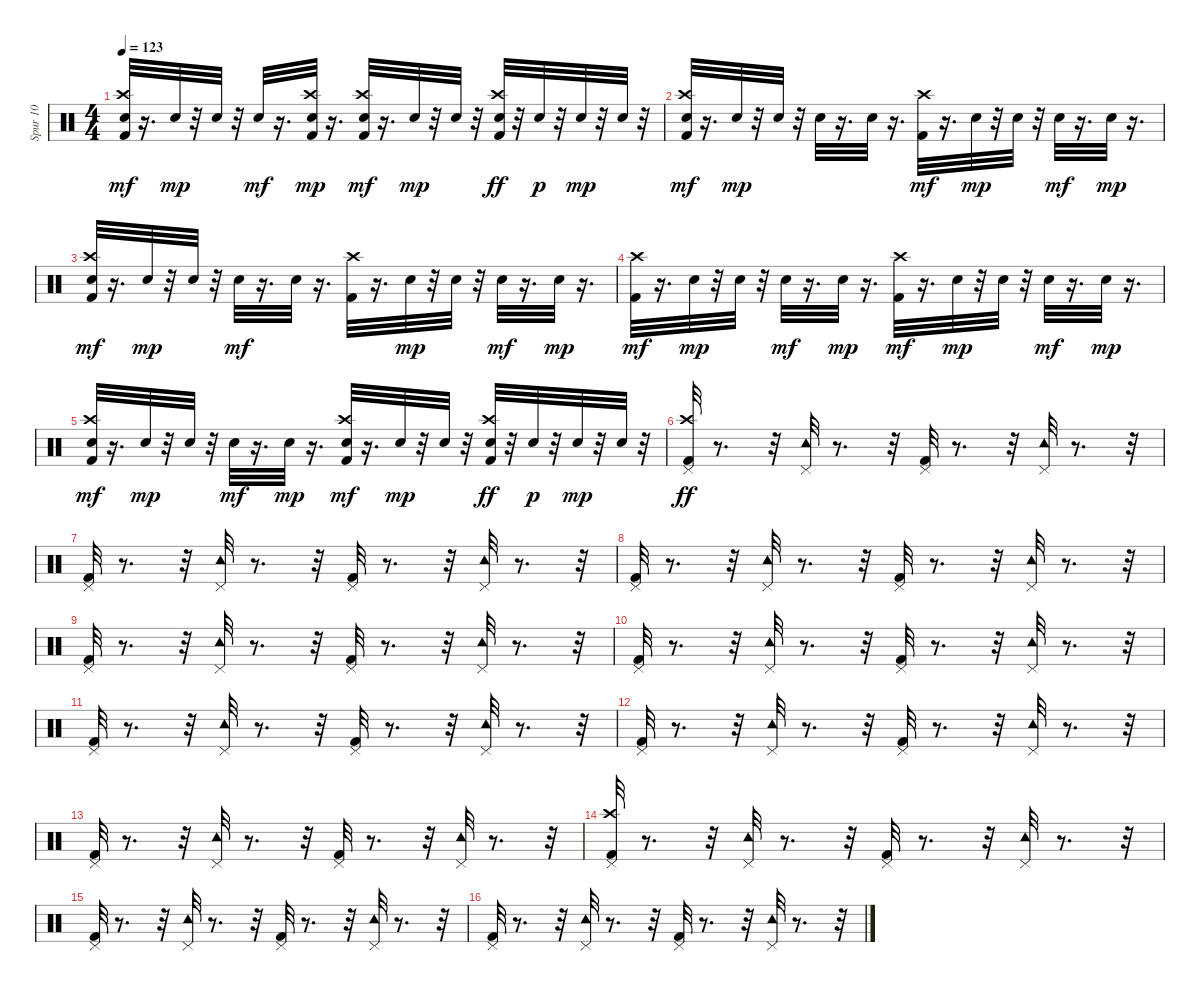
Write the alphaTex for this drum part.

\track ("Spur 10" "Spur 10") {instrument percussion}
\staff {score}
\articulation defaults
\ts (4 4)
\tempo 123
\clef neutral
\ks c
("Kick (hit) 2" "Crash high (hit)" "Snare (hit) 2").32{dy mf} r.16{d} "Snare (hit) 2".32{dy mp} r.32 "Snare (hit) 2".32 r.32 "Snare (hit) 2".32{dy mf} r.16{d} ("Snare (hit) 2" "Kick (hit) 2" "Crash high (hit)").32{dy mp} r.16{d} ("Kick (hit) 2" "Snare (hit) 2" "Crash high (hit)").32{dy mf} r.16{d} "Snare (hit) 2".32{dy mp} r.32 "Snare (hit) 2".32 r.32 ("Snare (hit) 2" "Kick (hit) 2" "Crash high (hit)").32{dy ff} r.32 "Snare (hit) 2".32{dy p} r.32 "Snare (hit) 2".32{dy mp} r.32 "Snare (hit) 2".32 r.32 |
("Kick (hit) 2" "Crash high (hit)" "Snare (hit) 2").32{dy mf} r.16{d} "Snare (hit) 2".32{dy mp} r.32 "Snare (hit) 2".32 r.32 "Snare (hit) 2".32 r.16{d} "Snare (hit) 2".32 r.16{d} ("Kick (hit) 2" "Crash high (hit)").32{dy mf} r.16{d} "Snare (hit) 2".32{dy mp} r.32 "Snare (hit) 2".32 r.32 "Snare (hit) 2".32{dy mf} r.16{d} "Snare (hit) 2".32{dy mp} r.16{d} |
("Kick (hit) 2" "Crash high (hit)" "Snare (hit) 2").32{dy mf} r.16{d} "Snare (hit) 2".32{dy mp} r.32 "Snare (hit) 2".32 r.32 "Snare (hit) 2".32{dy mf} r.16{d} "Snare (hit) 2".32 r.16{d} ("Kick (hit) 2" "Crash high (hit)").32 r.16{d} "Snare (hit) 2".32{dy mp} r.32 "Snare (hit) 2".32 r.32 "Snare (hit) 2".32{dy mf} r.16{d} "Snare (hit) 2".32{dy mp} r.16{d} |
("Kick (hit) 2" "Crash high (hit)").32{dy mf} r.16{d} "Snare (hit) 2".32{dy mp} r.32 "Snare (hit) 2".32 r.32 "Snare (hit) 2".32{dy mf} r.16{d} "Snare (hit) 2".32{dy mp} r.16{d} ("Kick (hit) 2" "Crash high (hit)").32{dy mf} r.16{d} "Snare (hit) 2".32{dy mp} r.32 "Snare (hit) 2".32 r.32 "Snare (hit) 2".32{dy mf} r.16{d} "Snare (hit) 2".32{dy mp} r.16{d} |
("Kick (hit) 2" "Crash high (hit)" "Snare (hit) 2").32{dy mf} r.16{d} "Snare (hit) 2".32{dy mp} r.32 "Snare (hit) 2".32 r.32 "Snare (hit) 2".32{dy mf} r.16{d} "Snare (hit) 2".32{dy mp} r.16{d} ("Kick (hit) 2" "Snare (hit) 2" "Crash high (hit)").32{dy mf} r.16{d} "Snare (hit) 2".32{dy mp} r.32 "Snare (hit) 2".32 r.32 ("Snare (hit) 2" "Kick (hit) 2" "Crash high (hit)").32{dy ff} r.32 "Snare (hit) 2".32{dy p} r.32 "Snare (hit) 2".32{dy mp} r.32 "Snare (hit) 2".32 r.32 |
("Kick (hit) 2" "Crash high (hit)" "Pedal Hi-Hat (hit)").32{dy ff} r.8{d} r.32 ("Tambourine (hit)" "Pedal Hi-Hat (hit)").32 r.8{d} r.32 ("Kick (hit) 2" "Pedal Hi-Hat (hit)").32 r.8{d} r.32 ("Tambourine (hit)" "Pedal Hi-Hat (hit)").32 r.8{d} r.32 |
("Kick (hit) 2" "Pedal Hi-Hat (hit)").32 r.8{d} r.32 ("Tambourine (hit)" "Pedal Hi-Hat (hit)").32 r.8{d} r.32 ("Kick (hit) 2" "Pedal Hi-Hat (hit)").32 r.8{d} r.32 ("Tambourine (hit)" "Pedal Hi-Hat (hit)").32 r.8{d} r.32 |
("Kick (hit) 2" "Pedal Hi-Hat (hit)").32 r.8{d} r.32 ("Tambourine (hit)" "Pedal Hi-Hat (hit)").32 r.8{d} r.32 ("Kick (hit) 2" "Pedal Hi-Hat (hit)").32 r.8{d} r.32 ("Tambourine (hit)" "Pedal Hi-Hat (hit)").32 r.8{d} r.32 |
("Kick (hit) 2" "Pedal Hi-Hat (hit)").32 r.8{d} r.32 ("Tambourine (hit)" "Pedal Hi-Hat (hit)").32 r.8{d} r.32 ("Kick (hit) 2" "Pedal Hi-Hat (hit)").32 r.8{d} r.32 ("Tambourine (hit)" "Pedal Hi-Hat (hit)").32 r.8{d} r.32 |
("Kick (hit) 2" "Pedal Hi-Hat (hit)").32 r.8{d} r.32 ("Tambourine (hit)" "Pedal Hi-Hat (hit)").32 r.8{d} r.32 ("Kick (hit) 2" "Pedal Hi-Hat (hit)").32 r.8{d} r.32 ("Tambourine (hit)" "Pedal Hi-Hat (hit)").32 r.8{d} r.32 |
("Kick (hit) 2" "Pedal Hi-Hat (hit)").32 r.8{d} r.32 ("Tambourine (hit)" "Pedal Hi-Hat (hit)").32 r.8{d} r.32 ("Kick (hit) 2" "Pedal Hi-Hat (hit)").32 r.8{d} r.32 ("Tambourine (hit)" "Pedal Hi-Hat (hit)").32 r.8{d} r.32 |
("Kick (hit) 2" "Pedal Hi-Hat (hit)").32 r.8{d} r.32 ("Tambourine (hit)" "Pedal Hi-Hat (hit)").32 r.8{d} r.32 ("Kick (hit) 2" "Pedal Hi-Hat (hit)").32 r.8{d} r.32 ("Tambourine (hit)" "Pedal Hi-Hat (hit)").32 r.8{d} r.32 |
("Kick (hit) 2" "Pedal Hi-Hat (hit)").32 r.8{d} r.32 ("Tambourine (hit)" "Pedal Hi-Hat (hit)").32 r.8{d} r.32 ("Kick (hit) 2" "Pedal Hi-Hat (hit)").32 r.8{d} r.32 ("Tambourine (hit)" "Pedal Hi-Hat (hit)").32 r.8{d} r.32 |
("Kick (hit) 2" "Crash high (hit)" "Pedal Hi-Hat (hit)").32 r.8{d} r.32 ("Tambourine (hit)" "Pedal Hi-Hat (hit)").32 r.8{d} r.32 ("Kick (hit) 2" "Pedal Hi-Hat (hit)").32 r.8{d} r.32 ("Tambourine (hit)" "Pedal Hi-Hat (hit)").32 r.8{d} r.32 |
("Kick (hit) 2" "Pedal Hi-Hat (hit)").32 r.8{d} r.32 ("Tambourine (hit)" "Pedal Hi-Hat (hit)").32 r.8{d} r.32 ("Kick (hit) 2" "Pedal Hi-Hat (hit)").32 r.8{d} r.32 ("Tambourine (hit)" "Pedal Hi-Hat (hit)").32 r.8{d} r.32 |
("Kick (hit) 2" "Pedal Hi-Hat (hit)").32 r.8{d} r.32 ("Tambourine (hit)" "Pedal Hi-Hat (hit)").32 r.8{d} r.32 ("Kick (hit) 2" "Pedal Hi-Hat (hit)").32 r.8{d} r.32 ("Tambourine (hit)" "Pedal Hi-Hat (hit)").32 r.8{d} r.32
